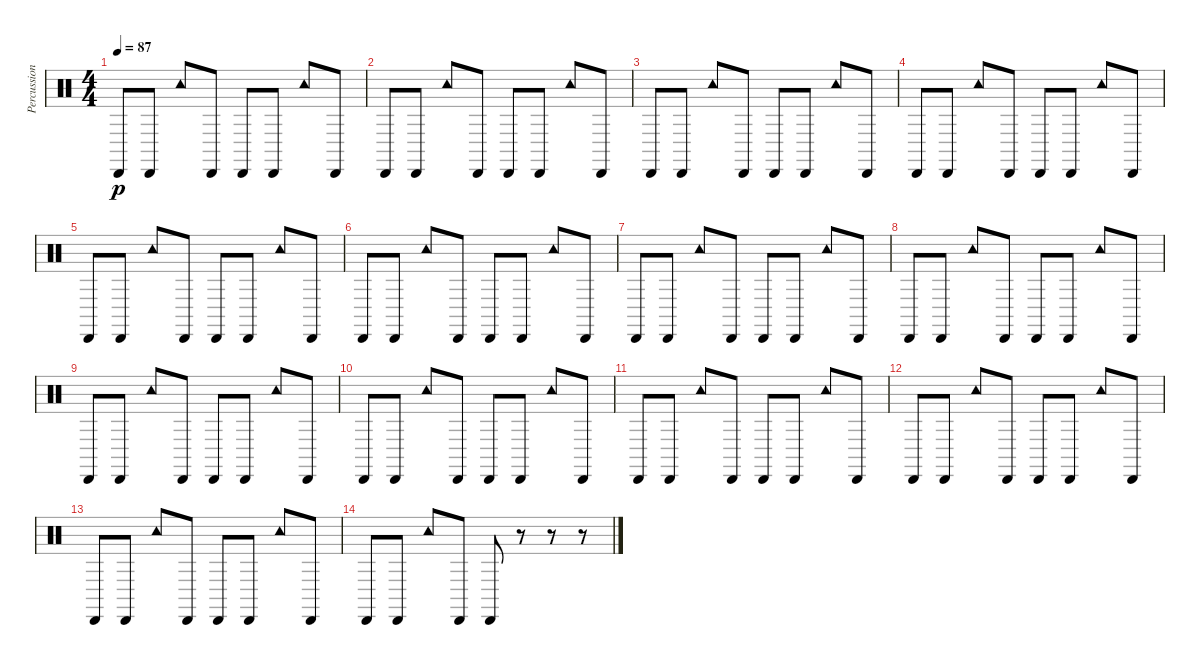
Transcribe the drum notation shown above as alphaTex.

\track ("Percussion" "Percussion") {instrument percussion}
\staff {score}
\articulation defaults
\ts (4 4)
\tempo 87
\clef neutral
\ks c "Cabasa (hit)".8{dy p} "Cabasa (hit)".8 "Tambourine (hit)".8 "Cabasa (hit)".8 "Cabasa (hit)".8 "Cabasa (hit)".8 "Tambourine (hit)".8 "Cabasa (hit)".8
|
"Cabasa (hit)".8 "Cabasa (hit)".8 "Tambourine (hit)".8 "Cabasa (hit)".8 "Cabasa (hit)".8 "Cabasa (hit)".8 "Tambourine (hit)".8 "Cabasa (hit)".8 |
"Cabasa (hit)".8 "Cabasa (hit)".8 "Tambourine (hit)".8 "Cabasa (hit)".8 "Cabasa (hit)".8 "Cabasa (hit)".8 "Tambourine (hit)".8 "Cabasa (hit)".8 |
"Cabasa (hit)".8 "Cabasa (hit)".8 "Tambourine (hit)".8 "Cabasa (hit)".8 "Cabasa (hit)".8 "Cabasa (hit)".8 "Tambourine (hit)".8 "Cabasa (hit)".8 |
"Cabasa (hit)".8 "Cabasa (hit)".8 "Tambourine (hit)".8 "Cabasa (hit)".8 "Cabasa (hit)".8 "Cabasa (hit)".8 "Tambourine (hit)".8 "Cabasa (hit)".8 |
"Cabasa (hit)".8 "Cabasa (hit)".8 "Tambourine (hit)".8 "Cabasa (hit)".8 "Cabasa (hit)".8 "Cabasa (hit)".8 "Tambourine (hit)".8 "Cabasa (hit)".8 |
"Cabasa (hit)".8 "Cabasa (hit)".8 "Tambourine (hit)".8 "Cabasa (hit)".8 "Cabasa (hit)".8 "Cabasa (hit)".8 "Tambourine (hit)".8 "Cabasa (hit)".8 |
"Cabasa (hit)".8 "Cabasa (hit)".8 "Tambourine (hit)".8 "Cabasa (hit)".8 "Cabasa (hit)".8 "Cabasa (hit)".8 "Tambourine (hit)".8 "Cabasa (hit)".8 |
"Cabasa (hit)".8 "Cabasa (hit)".8 "Tambourine (hit)".8 "Cabasa (hit)".8 "Cabasa (hit)".8 "Cabasa (hit)".8 "Tambourine (hit)".8 "Cabasa (hit)".8 |
"Cabasa (hit)".8 "Cabasa (hit)".8 "Tambourine (hit)".8 "Cabasa (hit)".8 "Cabasa (hit)".8 "Cabasa (hit)".8 "Tambourine (hit)".8 "Cabasa (hit)".8 |
"Cabasa (hit)".8 "Cabasa (hit)".8 "Tambourine (hit)".8 "Cabasa (hit)".8 "Cabasa (hit)".8 "Cabasa (hit)".8 "Tambourine (hit)".8 "Cabasa (hit)".8 |
"Cabasa (hit)".8 "Cabasa (hit)".8 "Tambourine (hit)".8 "Cabasa (hit)".8 "Cabasa (hit)".8 "Cabasa (hit)".8 "Tambourine (hit)".8 "Cabasa (hit)".8 |
"Cabasa (hit)".8 "Cabasa (hit)".8 "Tambourine (hit)".8 "Cabasa (hit)".8 "Cabasa (hit)".8 "Cabasa (hit)".8 "Tambourine (hit)".8 "Cabasa (hit)".8 |
"Cabasa (hit)".8 "Cabasa (hit)".8 "Tambourine (hit)".8 "Cabasa (hit)".8 "Cabasa (hit)".8 r.8 r.8 r.8
